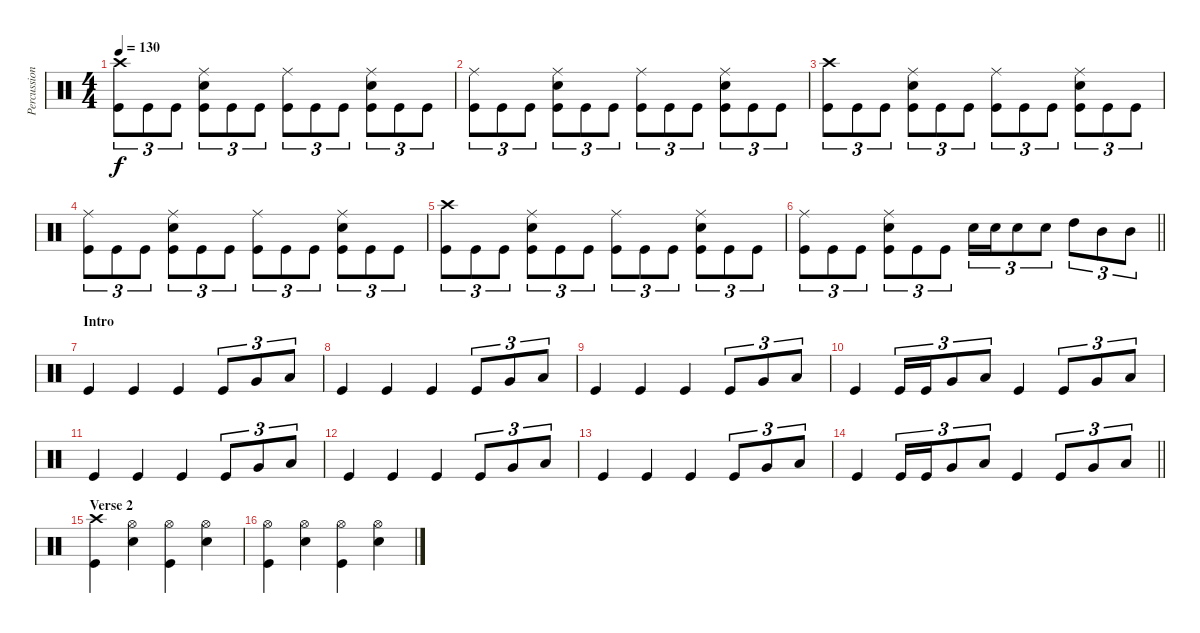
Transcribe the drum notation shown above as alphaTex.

\track ("Percussioni" "Percussion") {instrument percussion}
\staff {score}
\articulation defaults
\ts (4 4)
\tempo 130
\clef neutral
\ks c
("Kick (hit)" "Crash high (hit)").8{tu (3 2) dy f} "Kick (hit)".8{tu (3 2)} "Kick (hit)".8{tu (3 2)} ("Kick (hit)" "Snare (hit) 2" "Ride (middle)").8{tu (3 2)} "Kick (hit)".8{tu (3 2)} "Kick (hit)".8{tu (3 2)} ("Kick (hit)" "Ride (middle)").8{tu (3 2)} "Kick (hit)".8{tu (3 2)} "Kick (hit)".8{tu (3 2)} ("Kick (hit)" "Snare (hit) 2" "Ride (middle)").8{tu (3 2)} "Kick (hit)".8{tu (3 2)} "Kick (hit)".8{tu (3 2)} |
("Kick (hit)" "Ride (middle)").8{tu (3 2)} "Kick (hit)".8{tu (3 2)} "Kick (hit)".8{tu (3 2)} ("Kick (hit)" "Snare (hit) 2" "Ride (middle)").8{tu (3 2)} "Kick (hit)".8{tu (3 2)} "Kick (hit)".8{tu (3 2)} ("Kick (hit)" "Ride (middle)").8{tu (3 2)} "Kick (hit)".8{tu (3 2)} "Kick (hit)".8{tu (3 2)} ("Kick (hit)" "Snare (hit) 2" "Ride (middle)").8{tu (3 2)} "Kick (hit)".8{tu (3 2)} "Kick (hit)".8{tu (3 2)} |
("Kick (hit)" "Crash high (hit)").8{tu (3 2)} "Kick (hit)".8{tu (3 2)} "Kick (hit)".8{tu (3 2)} ("Kick (hit)" "Snare (hit) 2" "Ride (middle)").8{tu (3 2)} "Kick (hit)".8{tu (3 2)} "Kick (hit)".8{tu (3 2)} ("Kick (hit)" "Ride (middle)").8{tu (3 2)} "Kick (hit)".8{tu (3 2)} "Kick (hit)".8{tu (3 2)} ("Kick (hit)" "Snare (hit) 2" "Ride (middle)").8{tu (3 2)} "Kick (hit)".8{tu (3 2)} "Kick (hit)".8{tu (3 2)} |
("Kick (hit)" "Ride (middle)").8{tu (3 2)} "Kick (hit)".8{tu (3 2)} "Kick (hit)".8{tu (3 2)} ("Kick (hit)" "Snare (hit) 2" "Ride (middle)").8{tu (3 2)} "Kick (hit)".8{tu (3 2)} "Kick (hit)".8{tu (3 2)} ("Kick (hit)" "Ride (middle)").8{tu (3 2)} "Kick (hit)".8{tu (3 2)} "Kick (hit)".8{tu (3 2)} ("Kick (hit)" "Snare (hit) 2" "Ride (middle)").8{tu (3 2)} "Kick (hit)".8{tu (3 2)} "Kick (hit)".8{tu (3 2)} |
("Kick (hit)" "Crash high (hit)").8{tu (3 2)} "Kick (hit)".8{tu (3 2)} "Kick (hit)".8{tu (3 2)} ("Kick (hit)" "Snare (hit) 2" "Ride (middle)").8{tu (3 2)} "Kick (hit)".8{tu (3 2)} "Kick (hit)".8{tu (3 2)} ("Kick (hit)" "Ride (middle)").8{tu (3 2)} "Kick (hit)".8{tu (3 2)} "Kick (hit)".8{tu (3 2)} ("Kick (hit)" "Snare (hit) 2" "Ride (middle)").8{tu (3 2)} "Kick (hit)".8{tu (3 2)} "Kick (hit)".8{tu (3 2)} |
\barLineRight lightlight
("Kick (hit)" "Ride (middle)").8{tu (3 2)} "Kick (hit)".8{tu (3 2)} "Kick (hit)".8{tu (3 2)} ("Kick (hit)" "Snare (hit) 2" "Ride (middle)").8{tu (3 2)} "Kick (hit)".8{tu (3 2)} "Kick (hit)".8{tu (3 2)} "Snare (hit) 2".16{tu (3 2)} "Snare (hit) 2".16{tu (3 2)} "Snare (hit) 2".8{tu (3 2)} "Snare (hit) 2".8{tu (3 2)} "High Tom (hit)".8{tu (3 2)} "Mid Tom (hit)".8{tu (3 2)} "Mid Tom (hit)".8{tu (3 2)} |
\section ("" "Intro")
"Kick (hit)".4 "Kick (hit)".4 "Kick (hit)".4 "Kick (hit)".8{tu (3 2)} "Very Low Tom (hit)".8{tu (3 2) balance 11} "Low Floor Tom (hit)".8{tu (3 2) balance 8} |
"Kick (hit)".4 "Kick (hit)".4 "Kick (hit)".4 "Kick (hit)".8{tu (3 2)} "Very Low Tom (hit)".8{tu (3 2) balance 11} "Low Floor Tom (hit)".8{tu (3 2) balance 8} |
"Kick (hit)".4 "Kick (hit)".4 "Kick (hit)".4 "Kick (hit)".8{tu (3 2)} "Very Low Tom (hit)".8{tu (3 2) balance 11} "Low Floor Tom (hit)".8{tu (3 2) balance 8} |
"Kick (hit)".4 "Kick (hit)".16{tu (3 2)} "Kick (hit)".16{tu (3 2)} "Very Low Tom (hit)".8{tu (3 2) balance 11} "Low Floor Tom (hit)".8{tu (3 2) balance 8} "Kick (hit)".4 "Kick (hit)".8{tu (3 2)} "Very Low Tom (hit)".8{tu (3 2) balance 11} "Low Floor Tom (hit)".8{tu (3 2) balance 8} |
"Kick (hit)".4 "Kick (hit)".4 "Kick (hit)".4 "Kick (hit)".8{tu (3 2)} "Very Low Tom (hit)".8{tu (3 2) balance 11} "Low Floor Tom (hit)".8{tu (3 2) balance 8} |
"Kick (hit)".4 "Kick (hit)".4 "Kick (hit)".4 "Kick (hit)".8{tu (3 2)} "Very Low Tom (hit)".8{tu (3 2) balance 11} "Low Floor Tom (hit)".8{tu (3 2) balance 8} |
"Kick (hit)".4 "Kick (hit)".4 "Kick (hit)".4 "Kick (hit)".8{tu (3 2)} "Very Low Tom (hit)".8{tu (3 2) balance 11} "Low Floor Tom (hit)".8{tu (3 2) balance 8} |
\barLineRight lightlight "Kick (hit)".4 "Kick (hit)".16{tu (3 2)} "Kick (hit)".16{tu (3 2)} "Very Low Tom (hit)".8{tu (3 2) balance 11} "Low Floor Tom (hit)".8{tu (3 2) balance 8} "Kick (hit)".4 "Kick (hit)".8{tu (3 2)} "Very Low Tom (hit)".8{tu (3 2) balance 11} "Low Floor Tom (hit)".8{tu (3 2) balance 8}
|
\section ("" "Verse 2")
("Kick (hit)" "Crash high (hit)").4 ("Snare (hit) 2" "Hi-Hat (open)").4 ("Kick (hit)" "Hi-Hat (open)").4 ("Snare (hit) 2" "Hi-Hat (open)").4 |
("Kick (hit)" "Hi-Hat (open)").4 ("Snare (hit) 2" "Hi-Hat (open)").4 ("Kick (hit)" "Hi-Hat (open)").4 ("Snare (hit) 2" "Hi-Hat (open)").4
